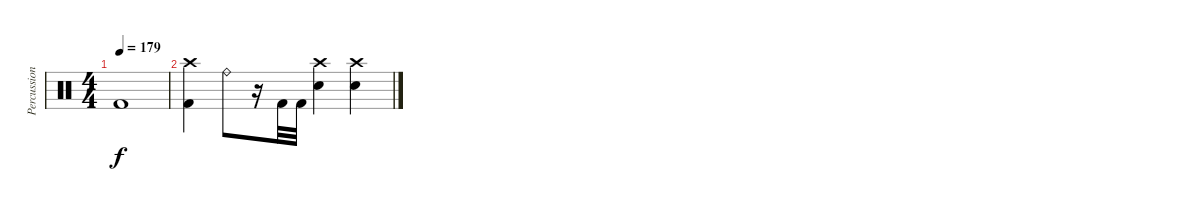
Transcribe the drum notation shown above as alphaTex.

\track ("Percussion" "Percussion") {instrument percussion}
\staff {score}
\articulation defaults
\ts (4 4)
\tempo 179
\clef neutral
\ks c "Kick (hit) 2".1{dy f}
|
("Crash high (hit)" "Kick (hit) 2").4 "Ride (bell)".8 r.16 "Kick (hit) 2".32 "Kick (hit) 2".32 ("Crash high (hit)" "Electric Snare (hit)").4 ("Crash high (hit)" "Electric Snare (hit)").4
